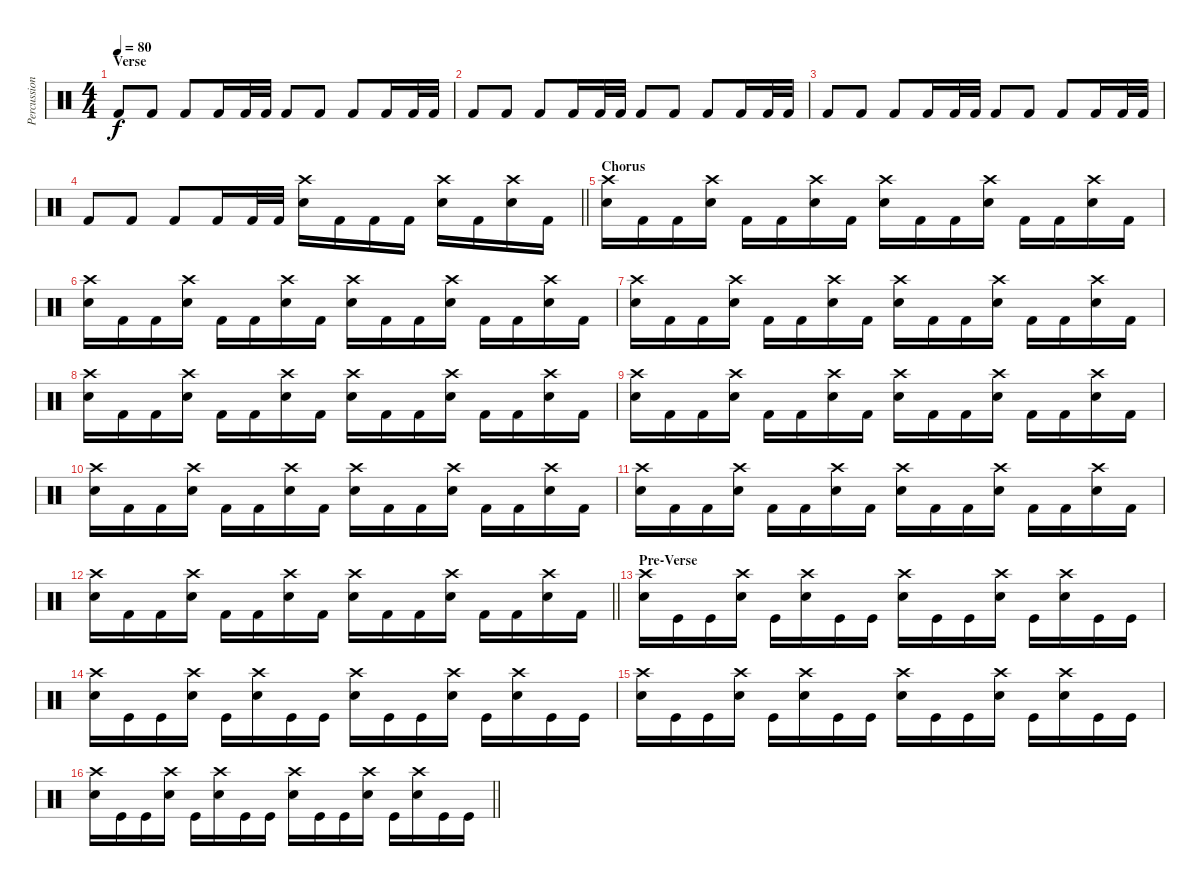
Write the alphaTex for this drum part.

\track ("Percussion" "Percussion") {instrument percussion}
\staff {score}
\articulation defaults
\ts (4 4)
\section ("" "Verse")
\tempo 80
\clef neutral
\ks c "Kick (hit) 2".8{dy f} "Kick (hit) 2".8 "Kick (hit) 2".8 "Kick (hit) 2".16 "Kick (hit) 2".32 "Kick (hit) 2".32 "Kick (hit) 2".8 "Kick (hit) 2".8 "Kick (hit) 2".8 "Kick (hit) 2".16 "Kick (hit) 2".32 "Kick (hit) 2".32
|
"Kick (hit) 2".8 "Kick (hit) 2".8 "Kick (hit) 2".8 "Kick (hit) 2".16 "Kick (hit) 2".32 "Kick (hit) 2".32 "Kick (hit) 2".8 "Kick (hit) 2".8 "Kick (hit) 2".8 "Kick (hit) 2".16 "Kick (hit) 2".32 "Kick (hit) 2".32 |
"Kick (hit) 2".8 "Kick (hit) 2".8 "Kick (hit) 2".8 "Kick (hit) 2".16 "Kick (hit) 2".32 "Kick (hit) 2".32 "Kick (hit) 2".8 "Kick (hit) 2".8 "Kick (hit) 2".8 "Kick (hit) 2".16 "Kick (hit) 2".32 "Kick (hit) 2".32 |
\barLineRight lightlight "Kick (hit) 2".8 "Kick (hit) 2".8 "Kick (hit) 2".8 "Kick (hit) 2".16 "Kick (hit) 2".32 "Kick (hit) 2".32
("Crash high (hit)" "Electric Snare (hit)").16 "Kick (hit) 2".16 "Kick (hit) 2".16 "Kick (hit) 2".16 ("Crash high (hit)" "Electric Snare (hit)").16 "Kick (hit) 2".16 ("Crash high (hit)" "Electric Snare (hit)").16 "Kick (hit) 2".16 |
\section ("" "Chorus")
("Crash high (hit)" "Electric Snare (hit)").16 "Kick (hit) 2".16 "Kick (hit) 2".16 ("Crash high (hit)" "Electric Snare (hit)").16 "Kick (hit) 2".16 "Kick (hit) 2".16 ("Crash high (hit)" "Electric Snare (hit)").16 "Kick (hit) 2".16 ("Crash high (hit)" "Electric Snare (hit)").16 "Kick (hit) 2".16 "Kick (hit) 2".16 ("Crash high (hit)" "Electric Snare (hit)").16 "Kick (hit) 2".16 "Kick (hit) 2".16 ("Crash high (hit)" "Electric Snare (hit)").16 "Kick (hit) 2".16 |
("Crash high (hit)" "Electric Snare (hit)").16 "Kick (hit) 2".16 "Kick (hit) 2".16 ("Crash high (hit)" "Electric Snare (hit)").16 "Kick (hit) 2".16 "Kick (hit) 2".16 ("Crash high (hit)" "Electric Snare (hit)").16 "Kick (hit) 2".16 ("Crash high (hit)" "Electric Snare (hit)").16 "Kick (hit) 2".16 "Kick (hit) 2".16 ("Crash high (hit)" "Electric Snare (hit)").16 "Kick (hit) 2".16 "Kick (hit) 2".16 ("Crash high (hit)" "Electric Snare (hit)").16 "Kick (hit) 2".16 |
("Crash high (hit)" "Electric Snare (hit)").16 "Kick (hit) 2".16 "Kick (hit) 2".16 ("Crash high (hit)" "Electric Snare (hit)").16 "Kick (hit) 2".16 "Kick (hit) 2".16 ("Crash high (hit)" "Electric Snare (hit)").16 "Kick (hit) 2".16 ("Crash high (hit)" "Electric Snare (hit)").16 "Kick (hit) 2".16 "Kick (hit) 2".16 ("Crash high (hit)" "Electric Snare (hit)").16 "Kick (hit) 2".16 "Kick (hit) 2".16 ("Crash high (hit)" "Electric Snare (hit)").16 "Kick (hit) 2".16 |
("Crash high (hit)" "Electric Snare (hit)").16 "Kick (hit) 2".16 "Kick (hit) 2".16 ("Crash high (hit)" "Electric Snare (hit)").16 "Kick (hit) 2".16 "Kick (hit) 2".16 ("Crash high (hit)" "Electric Snare (hit)").16 "Kick (hit) 2".16 ("Crash high (hit)" "Electric Snare (hit)").16 "Kick (hit) 2".16 "Kick (hit) 2".16 ("Crash high (hit)" "Electric Snare (hit)").16 "Kick (hit) 2".16 "Kick (hit) 2".16 ("Crash high (hit)" "Electric Snare (hit)").16 "Kick (hit) 2".16 |
("Crash high (hit)" "Electric Snare (hit)").16 "Kick (hit) 2".16 "Kick (hit) 2".16 ("Crash high (hit)" "Electric Snare (hit)").16 "Kick (hit) 2".16 "Kick (hit) 2".16 ("Crash high (hit)" "Electric Snare (hit)").16 "Kick (hit) 2".16 ("Crash high (hit)" "Electric Snare (hit)").16 "Kick (hit) 2".16 "Kick (hit) 2".16 ("Crash high (hit)" "Electric Snare (hit)").16 "Kick (hit) 2".16 "Kick (hit) 2".16 ("Crash high (hit)" "Electric Snare (hit)").16 "Kick (hit) 2".16 |
("Crash high (hit)" "Electric Snare (hit)").16 "Kick (hit) 2".16 "Kick (hit) 2".16 ("Crash high (hit)" "Electric Snare (hit)").16 "Kick (hit) 2".16 "Kick (hit) 2".16 ("Crash high (hit)" "Electric Snare (hit)").16 "Kick (hit) 2".16 ("Crash high (hit)" "Electric Snare (hit)").16 "Kick (hit) 2".16 "Kick (hit) 2".16 ("Crash high (hit)" "Electric Snare (hit)").16 "Kick (hit) 2".16 "Kick (hit) 2".16 ("Crash high (hit)" "Electric Snare (hit)").16 "Kick (hit) 2".16 |
("Crash high (hit)" "Electric Snare (hit)").16 "Kick (hit) 2".16 "Kick (hit) 2".16 ("Crash high (hit)" "Electric Snare (hit)").16 "Kick (hit) 2".16 "Kick (hit) 2".16 ("Crash high (hit)" "Electric Snare (hit)").16 "Kick (hit) 2".16 ("Crash high (hit)" "Electric Snare (hit)").16 "Kick (hit) 2".16 "Kick (hit) 2".16 ("Crash high (hit)" "Electric Snare (hit)").16 "Kick (hit) 2".16 "Kick (hit) 2".16 ("Crash high (hit)" "Electric Snare (hit)").16 "Kick (hit) 2".16 |
\barLineRight lightlight
("Crash high (hit)" "Electric Snare (hit)").16 "Kick (hit) 2".16 "Kick (hit) 2".16 ("Crash high (hit)" "Electric Snare (hit)").16 "Kick (hit) 2".16 "Kick (hit) 2".16 ("Crash high (hit)" "Electric Snare (hit)").16 "Kick (hit) 2".16 ("Crash high (hit)" "Electric Snare (hit)").16 "Kick (hit) 2".16 "Kick (hit) 2".16 ("Crash high (hit)" "Electric Snare (hit)").16 "Kick (hit) 2".16 "Kick (hit) 2".16 ("Crash high (hit)" "Electric Snare (hit)").16 "Kick (hit) 2".16 |
\section ("" "Pre-Verse")
("Crash high (hit)" "Electric Snare (hit)").16 "Kick (hit)".16 "Kick (hit)".16 ("Crash high (hit)" "Electric Snare (hit)").16 "Kick (hit)".16 ("Crash high (hit)" "Electric Snare (hit)").16 "Kick (hit)".16 "Kick (hit)".16 ("Crash high (hit)" "Electric Snare (hit)").16 "Kick (hit)".16 "Kick (hit)".16 ("Crash high (hit)" "Electric Snare (hit)").16 "Kick (hit)".16 ("Crash high (hit)" "Electric Snare (hit)").16 "Kick (hit)".16 "Kick (hit)".16 |
("Crash high (hit)" "Electric Snare (hit)").16 "Kick (hit)".16 "Kick (hit)".16 ("Crash high (hit)" "Electric Snare (hit)").16 "Kick (hit)".16 ("Crash high (hit)" "Electric Snare (hit)").16 "Kick (hit)".16 "Kick (hit)".16 ("Crash high (hit)" "Electric Snare (hit)").16 "Kick (hit)".16 "Kick (hit)".16 ("Crash high (hit)" "Electric Snare (hit)").16 "Kick (hit)".16 ("Crash high (hit)" "Electric Snare (hit)").16 "Kick (hit)".16 "Kick (hit)".16 |
("Crash high (hit)" "Electric Snare (hit)").16 "Kick (hit)".16 "Kick (hit)".16 ("Crash high (hit)" "Electric Snare (hit)").16 "Kick (hit)".16 ("Crash high (hit)" "Electric Snare (hit)").16 "Kick (hit)".16 "Kick (hit)".16 ("Crash high (hit)" "Electric Snare (hit)").16 "Kick (hit)".16 "Kick (hit)".16 ("Crash high (hit)" "Electric Snare (hit)").16 "Kick (hit)".16 ("Crash high (hit)" "Electric Snare (hit)").16 "Kick (hit)".16 "Kick (hit)".16 |
\barLineRight lightlight
("Crash high (hit)" "Electric Snare (hit)").16 "Kick (hit)".16 "Kick (hit)".16 ("Crash high (hit)" "Electric Snare (hit)").16 "Kick (hit)".16 ("Crash high (hit)" "Electric Snare (hit)").16 "Kick (hit)".16 "Kick (hit)".16 ("Crash high (hit)" "Electric Snare (hit)").16 "Kick (hit)".16 "Kick (hit)".16 ("Crash high (hit)" "Electric Snare (hit)").16 "Kick (hit)".16 ("Crash high (hit)" "Electric Snare (hit)").16 "Kick (hit)".16 "Kick (hit)".16
